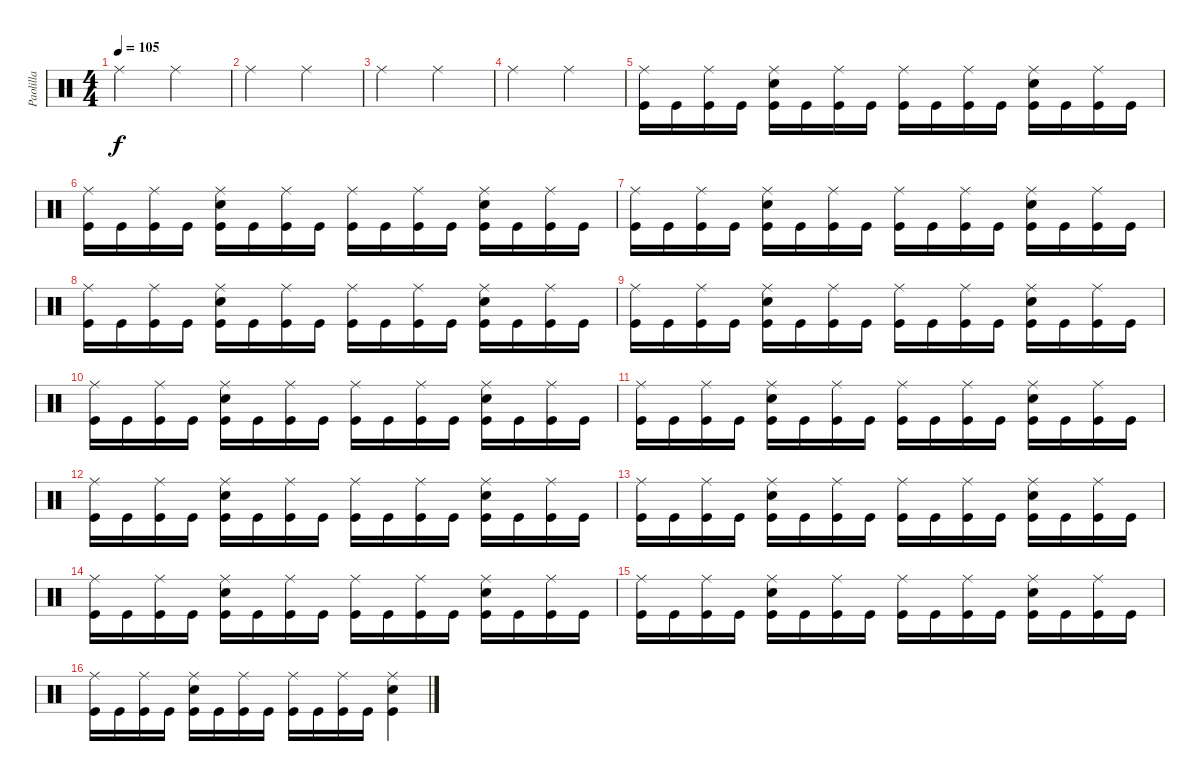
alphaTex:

\track ("Paolilla" "Paolilla") {instrument percussion}
\staff {score}
\articulation defaults
\ts (4 4)
\tempo 105
\clef neutral
\ks c "Ride (middle)".2{dy f} "Ride (middle)".2
|
"Ride (middle)".2 "Ride (middle)".2 |
"Ride (middle)".2 "Ride (middle)".2 |
"Ride (middle)".2 "Ride (middle)".2 |
("Ride (middle)" "Kick (hit)").16 "Kick (hit)".16 ("Ride (middle)" "Kick (hit)").16 "Kick (hit)".16 ("Ride (middle)" "Snare (hit) 2" "Kick (hit)").16 "Kick (hit)".16 ("Ride (middle)" "Kick (hit)").16 "Kick (hit)".16 ("Ride (middle)" "Kick (hit)").16 "Kick (hit)".16 ("Ride (middle)" "Kick (hit)").16 "Kick (hit)".16 ("Ride (middle)" "Snare (hit) 2" "Kick (hit)").16 "Kick (hit)".16 ("Ride (middle)" "Kick (hit)").16 "Kick (hit)".16 |
("Ride (middle)" "Kick (hit)").16 "Kick (hit)".16 ("Ride (middle)" "Kick (hit)").16 "Kick (hit)".16 ("Ride (middle)" "Snare (hit) 2" "Kick (hit)").16 "Kick (hit)".16 ("Ride (middle)" "Kick (hit)").16 "Kick (hit)".16 ("Ride (middle)" "Kick (hit)").16 "Kick (hit)".16 ("Ride (middle)" "Kick (hit)").16 "Kick (hit)".16 ("Ride (middle)" "Snare (hit) 2" "Kick (hit)").16 "Kick (hit)".16 ("Ride (middle)" "Kick (hit)").16 "Kick (hit)".16 |
("Ride (middle)" "Kick (hit)").16 "Kick (hit)".16 ("Ride (middle)" "Kick (hit)").16 "Kick (hit)".16 ("Ride (middle)" "Snare (hit) 2" "Kick (hit)").16 "Kick (hit)".16 ("Ride (middle)" "Kick (hit)").16 "Kick (hit)".16 ("Ride (middle)" "Kick (hit)").16 "Kick (hit)".16 ("Ride (middle)" "Kick (hit)").16 "Kick (hit)".16 ("Ride (middle)" "Snare (hit) 2" "Kick (hit)").16 "Kick (hit)".16 ("Ride (middle)" "Kick (hit)").16 "Kick (hit)".16 |
("Ride (middle)" "Kick (hit)").16 "Kick (hit)".16 ("Ride (middle)" "Kick (hit)").16 "Kick (hit)".16 ("Ride (middle)" "Snare (hit) 2" "Kick (hit)").16 "Kick (hit)".16 ("Ride (middle)" "Kick (hit)").16 "Kick (hit)".16 ("Ride (middle)" "Kick (hit)").16 "Kick (hit)".16 ("Ride (middle)" "Kick (hit)").16 "Kick (hit)".16 ("Ride (middle)" "Snare (hit) 2" "Kick (hit)").16 "Kick (hit)".16 ("Ride (middle)" "Kick (hit)").16 "Kick (hit)".16 |
("Ride (middle)" "Kick (hit)").16 "Kick (hit)".16 ("Ride (middle)" "Kick (hit)").16 "Kick (hit)".16 ("Ride (middle)" "Snare (hit) 2" "Kick (hit)").16 "Kick (hit)".16 ("Ride (middle)" "Kick (hit)").16 "Kick (hit)".16 ("Ride (middle)" "Kick (hit)").16 "Kick (hit)".16 ("Ride (middle)" "Kick (hit)").16 "Kick (hit)".16 ("Ride (middle)" "Snare (hit) 2" "Kick (hit)").16 "Kick (hit)".16 ("Ride (middle)" "Kick (hit)").16 "Kick (hit)".16 |
("Ride (middle)" "Kick (hit)").16 "Kick (hit)".16 ("Ride (middle)" "Kick (hit)").16 "Kick (hit)".16 ("Ride (middle)" "Snare (hit) 2" "Kick (hit)").16 "Kick (hit)".16 ("Ride (middle)" "Kick (hit)").16 "Kick (hit)".16 ("Ride (middle)" "Kick (hit)").16 "Kick (hit)".16 ("Ride (middle)" "Kick (hit)").16 "Kick (hit)".16 ("Ride (middle)" "Snare (hit) 2" "Kick (hit)").16 "Kick (hit)".16 ("Ride (middle)" "Kick (hit)").16 "Kick (hit)".16 |
("Ride (middle)" "Kick (hit)").16 "Kick (hit)".16 ("Ride (middle)" "Kick (hit)").16 "Kick (hit)".16 ("Ride (middle)" "Snare (hit) 2" "Kick (hit)").16 "Kick (hit)".16 ("Ride (middle)" "Kick (hit)").16 "Kick (hit)".16 ("Ride (middle)" "Kick (hit)").16 "Kick (hit)".16 ("Ride (middle)" "Kick (hit)").16 "Kick (hit)".16 ("Ride (middle)" "Snare (hit) 2" "Kick (hit)").16 "Kick (hit)".16 ("Ride (middle)" "Kick (hit)").16 "Kick (hit)".16 |
("Ride (middle)" "Kick (hit)").16 "Kick (hit)".16 ("Ride (middle)" "Kick (hit)").16 "Kick (hit)".16 ("Ride (middle)" "Snare (hit) 2" "Kick (hit)").16 "Kick (hit)".16 ("Ride (middle)" "Kick (hit)").16 "Kick (hit)".16 ("Ride (middle)" "Kick (hit)").16 "Kick (hit)".16 ("Ride (middle)" "Kick (hit)").16 "Kick (hit)".16 ("Ride (middle)" "Snare (hit) 2" "Kick (hit)").16 "Kick (hit)".16 ("Ride (middle)" "Kick (hit)").16 "Kick (hit)".16 |
("Ride (middle)" "Kick (hit)").16 "Kick (hit)".16 ("Ride (middle)" "Kick (hit)").16 "Kick (hit)".16 ("Ride (middle)" "Snare (hit) 2" "Kick (hit)").16 "Kick (hit)".16 ("Ride (middle)" "Kick (hit)").16 "Kick (hit)".16 ("Ride (middle)" "Kick (hit)").16 "Kick (hit)".16 ("Ride (middle)" "Kick (hit)").16 "Kick (hit)".16 ("Ride (middle)" "Snare (hit) 2" "Kick (hit)").16 "Kick (hit)".16 ("Ride (middle)" "Kick (hit)").16 "Kick (hit)".16 |
("Ride (middle)" "Kick (hit)").16 "Kick (hit)".16 ("Ride (middle)" "Kick (hit)").16 "Kick (hit)".16 ("Ride (middle)" "Snare (hit) 2" "Kick (hit)").16 "Kick (hit)".16 ("Ride (middle)" "Kick (hit)").16 "Kick (hit)".16 ("Ride (middle)" "Kick (hit)").16 "Kick (hit)".16 ("Ride (middle)" "Kick (hit)").16 "Kick (hit)".16 ("Ride (middle)" "Snare (hit) 2" "Kick (hit)").16 "Kick (hit)".16 ("Ride (middle)" "Kick (hit)").16 "Kick (hit)".16 |
("Ride (middle)" "Kick (hit)").16 "Kick (hit)".16 ("Ride (middle)" "Kick (hit)").16 "Kick (hit)".16 ("Ride (middle)" "Snare (hit) 2" "Kick (hit)").16 "Kick (hit)".16 ("Ride (middle)" "Kick (hit)").16 "Kick (hit)".16 ("Ride (middle)" "Kick (hit)").16 "Kick (hit)".16 ("Ride (middle)" "Kick (hit)").16 "Kick (hit)".16 ("Ride (middle)" "Snare (hit) 2" "Kick (hit)").16 "Kick (hit)".16 ("Ride (middle)" "Kick (hit)").16 "Kick (hit)".16 |
("Ride (middle)" "Kick (hit)").16 "Kick (hit)".16 ("Ride (middle)" "Kick (hit)").16 "Kick (hit)".16 ("Ride (middle)" "Snare (hit) 2" "Kick (hit)").16 "Kick (hit)".16 ("Ride (middle)" "Kick (hit)").16 "Kick (hit)".16 ("Ride (middle)" "Kick (hit)").16 "Kick (hit)".16 ("Ride (middle)" "Kick (hit)").16 "Kick (hit)".16 ("Ride (middle)" "Snare (hit) 2" "Kick (hit)").4
